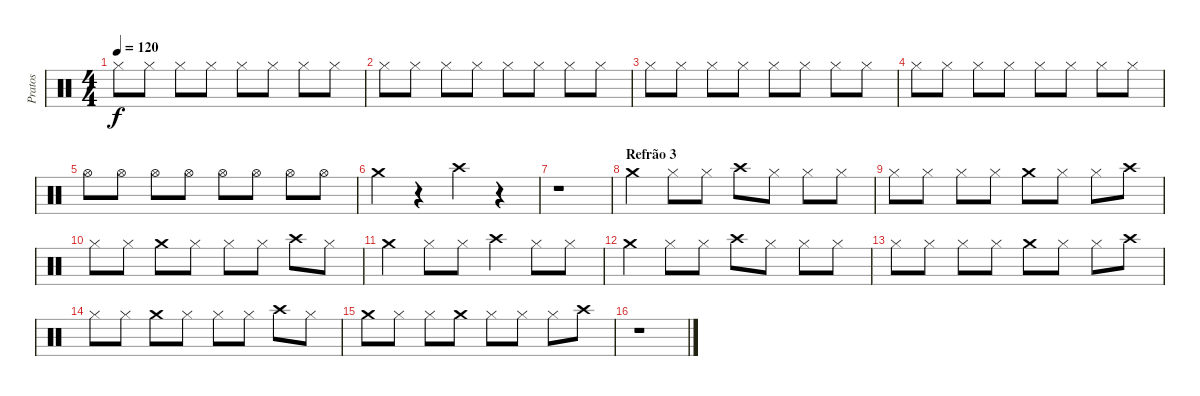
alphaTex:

\track ("Pratos" "Pratos") {instrument percussion}
\staff {score}
\articulation defaults
\ts (4 4)
\tempo 120
\clef neutral
\ks c "Hi-Hat (closed)".8{dy f} "Hi-Hat (closed)".8 "Hi-Hat (closed)".8 "Hi-Hat (closed)".8 "Hi-Hat (closed)".8 "Hi-Hat (closed)".8 "Hi-Hat (closed)".8 "Hi-Hat (closed)".8
|
"Hi-Hat (closed)".8 "Hi-Hat (closed)".8 "Hi-Hat (closed)".8 "Hi-Hat (closed)".8 "Hi-Hat (closed)".8 "Hi-Hat (closed)".8 "Hi-Hat (closed)".8 "Hi-Hat (closed)".8 |
"Hi-Hat (closed)".8 "Hi-Hat (closed)".8 "Hi-Hat (closed)".8 "Hi-Hat (closed)".8 "Hi-Hat (closed)".8 "Hi-Hat (closed)".8 "Hi-Hat (closed)".8 "Hi-Hat (closed)".8 |
"Hi-Hat (closed)".8 "Hi-Hat (closed)".8 "Hi-Hat (closed)".8 "Hi-Hat (closed)".8 "Hi-Hat (closed)".8 "Hi-Hat (closed)".8 "Hi-Hat (closed)".8 "Hi-Hat (closed)".8 |
"Hi-Hat (open)".8 "Hi-Hat (open)".8 "Hi-Hat (open)".8 "Hi-Hat (open)".8 "Hi-Hat (open)".8 "Hi-Hat (open)".8 "Hi-Hat (open)".8 "Hi-Hat (open)".8 |
"Crash medium (hit)".4 r.4 "Crash high (hit)".4 r.4 |
r.1 |
\section ("" "Refrão 3")
"Crash medium (hit)".4 "Hi-Hat (closed)".8 "Hi-Hat (closed)".8 "Crash high (hit)".8 "Hi-Hat (closed)".8 "Hi-Hat (closed)".8 "Hi-Hat (closed)".8 |
"Hi-Hat (closed)".8 "Hi-Hat (closed)".8 "Hi-Hat (closed)".8 "Hi-Hat (closed)".8 "Crash medium (hit)".8 "Hi-Hat (closed)".8 "Hi-Hat (closed)".8 "Crash high (hit)".8 |
"Hi-Hat (closed)".8 "Hi-Hat (closed)".8 "Crash medium (hit)".8 "Hi-Hat (closed)".8 "Hi-Hat (closed)".8 "Hi-Hat (closed)".8 "Crash high (hit)".8 "Hi-Hat (closed)".8 |
"Crash medium (hit)".4 "Hi-Hat (closed)".8 "Hi-Hat (closed)".8 "Crash high (hit)".4 "Hi-Hat (closed)".8 "Hi-Hat (closed)".8 |
"Crash medium (hit)".4 "Hi-Hat (closed)".8 "Hi-Hat (closed)".8 "Crash high (hit)".8 "Hi-Hat (closed)".8 "Hi-Hat (closed)".8 "Hi-Hat (closed)".8 |
"Hi-Hat (closed)".8 "Hi-Hat (closed)".8 "Hi-Hat (closed)".8 "Hi-Hat (closed)".8 "Crash medium (hit)".8 "Hi-Hat (closed)".8 "Hi-Hat (closed)".8 "Crash high (hit)".8 |
"Hi-Hat (closed)".8 "Hi-Hat (closed)".8 "Crash medium (hit)".8 "Hi-Hat (closed)".8 "Hi-Hat (closed)".8 "Hi-Hat (closed)".8 "Crash high (hit)".8 "Hi-Hat (closed)".8 |
"Crash medium (hit)".8 "Hi-Hat (closed)".8 "Hi-Hat (closed)".8 "Crash medium (hit)".8 "Hi-Hat (closed)".8 "Hi-Hat (closed)".8 "Hi-Hat (closed)".8 "Crash high (hit)".8 |
r.1
